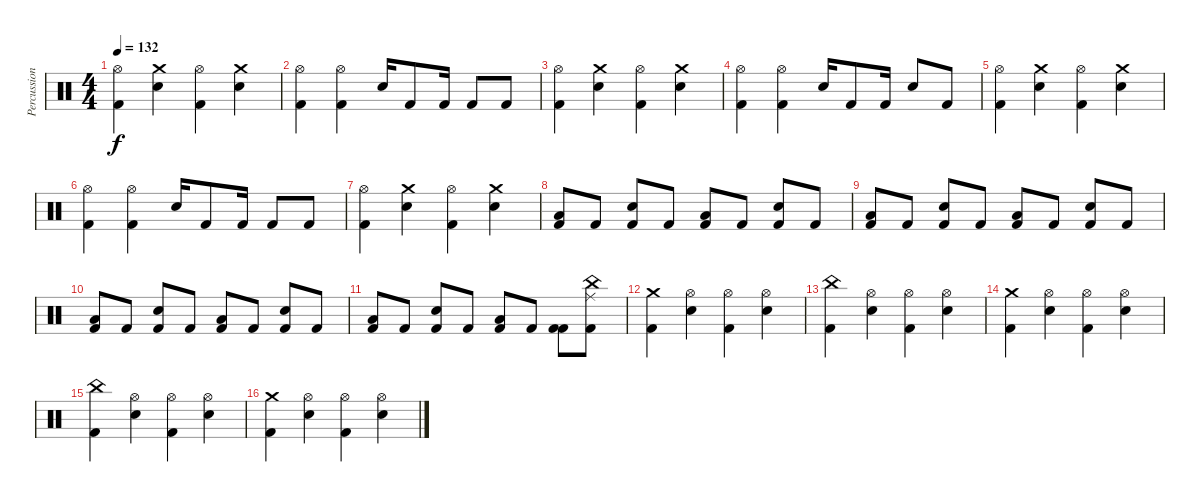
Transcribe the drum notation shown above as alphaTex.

\track ("Percussioni" "Percussion") {instrument percussion}
\staff {score}
\articulation defaults
\ts (4 4)
\tempo 132
\clef neutral
\ks c
("Hi-Hat (open)" "Kick (hit) 2").4{dy f} ("Crash medium (hit)" "Snare (hit) 2").4 ("Hi-Hat (open)" "Kick (hit) 2").4 ("Crash medium (hit)" "Snare (hit) 2").4 |
("Hi-Hat (open)" "Kick (hit) 2").4 ("Hi-Hat (open)" "Kick (hit) 2").4 "Snare (hit) 2".16 "Kick (hit) 2".8 "Kick (hit) 2".16 "Kick (hit) 2".8 "Kick (hit) 2".8 |
("Hi-Hat (open)" "Kick (hit) 2").4 ("Crash medium (hit)" "Snare (hit) 2").4 ("Hi-Hat (open)" "Kick (hit) 2").4 ("Crash medium (hit)" "Snare (hit) 2").4 |
("Hi-Hat (open)" "Kick (hit) 2").4 ("Hi-Hat (open)" "Kick (hit) 2").4 "Snare (hit) 2".16 "Kick (hit) 2".8 "Kick (hit) 2".16 "Snare (hit) 2".8 "Kick (hit) 2".8 |
("Hi-Hat (open)" "Kick (hit) 2").4 ("Crash medium (hit)" "Snare (hit) 2").4 ("Hi-Hat (open)" "Kick (hit) 2").4 ("Crash medium (hit)" "Snare (hit) 2").4 |
("Hi-Hat (open)" "Kick (hit) 2").4 ("Hi-Hat (open)" "Kick (hit) 2").4 "Snare (hit) 2".16 "Kick (hit) 2".8 "Kick (hit) 2".16 "Kick (hit) 2".8 "Kick (hit) 2".8 |
("Hi-Hat (open)" "Kick (hit) 2").4 ("Crash medium (hit)" "Snare (hit) 2").4 ("Hi-Hat (open)" "Kick (hit) 2").4 ("Crash medium (hit)" "Snare (hit) 2").4 |
("Low Floor Tom (hit)" "Kick (hit) 2").8 "Kick (hit) 2".8 ("Snare (hit) 2" "Kick (hit) 2").8 "Kick (hit) 2".8 ("Low Floor Tom (hit)" "Kick (hit) 2").8 "Kick (hit) 2".8 ("Snare (hit) 2" "Kick (hit) 2").8 "Kick (hit) 2".8 |
("Low Floor Tom (hit)" "Kick (hit) 2").8 "Kick (hit) 2".8 ("Snare (hit) 2" "Kick (hit) 2").8 "Kick (hit) 2".8 ("Low Floor Tom (hit)" "Kick (hit) 2").8 "Kick (hit) 2".8 ("Snare (hit) 2" "Kick (hit) 2").8 "Kick (hit) 2".8 |
("Low Floor Tom (hit)" "Kick (hit) 2").8 "Kick (hit) 2".8 ("Snare (hit) 2" "Kick (hit) 2").8 "Kick (hit) 2".8 ("Low Floor Tom (hit)" "Kick (hit) 2").8 "Kick (hit) 2".8 ("Snare (hit) 2" "Kick (hit) 2").8 "Kick (hit) 2".8 |
("Low Floor Tom (hit)" "Kick (hit) 2").8 "Kick (hit) 2".8 ("Snare (hit) 2" "Kick (hit) 2").8 "Kick (hit) 2".8 ("Low Floor Tom (hit)" "Kick (hit) 2").8 "Kick (hit) 2".8 ("Kick (hit) 2" "Kick (hit) 2").8 ("China (hit)" "Ride (middle)" "Kick (hit) 2").8 |
("Crash medium (hit)" "Kick (hit) 2").4 ("Hi-Hat (open)" "Snare (hit) 2").4 ("Hi-Hat (open)" "Kick (hit) 2").4 ("Hi-Hat (open)" "Snare (hit) 2").4 |
("China (hit)" "Kick (hit) 2").4 ("Hi-Hat (open)" "Snare (hit) 2").4 ("Hi-Hat (open)" "Kick (hit) 2").4 ("Hi-Hat (open)" "Snare (hit) 2").4 |
("Crash medium (hit)" "Kick (hit) 2").4 ("Hi-Hat (open)" "Snare (hit) 2").4 ("Hi-Hat (open)" "Kick (hit) 2").4 ("Hi-Hat (open)" "Snare (hit) 2").4 |
("China (hit)" "Kick (hit) 2").4 ("Hi-Hat (open)" "Snare (hit) 2").4 ("Hi-Hat (open)" "Kick (hit) 2").4 ("Hi-Hat (open)" "Snare (hit) 2").4 |
("Crash medium (hit)" "Kick (hit) 2").4 ("Hi-Hat (open)" "Snare (hit) 2").4 ("Hi-Hat (open)" "Kick (hit) 2").4 ("Hi-Hat (open)" "Snare (hit) 2").4
